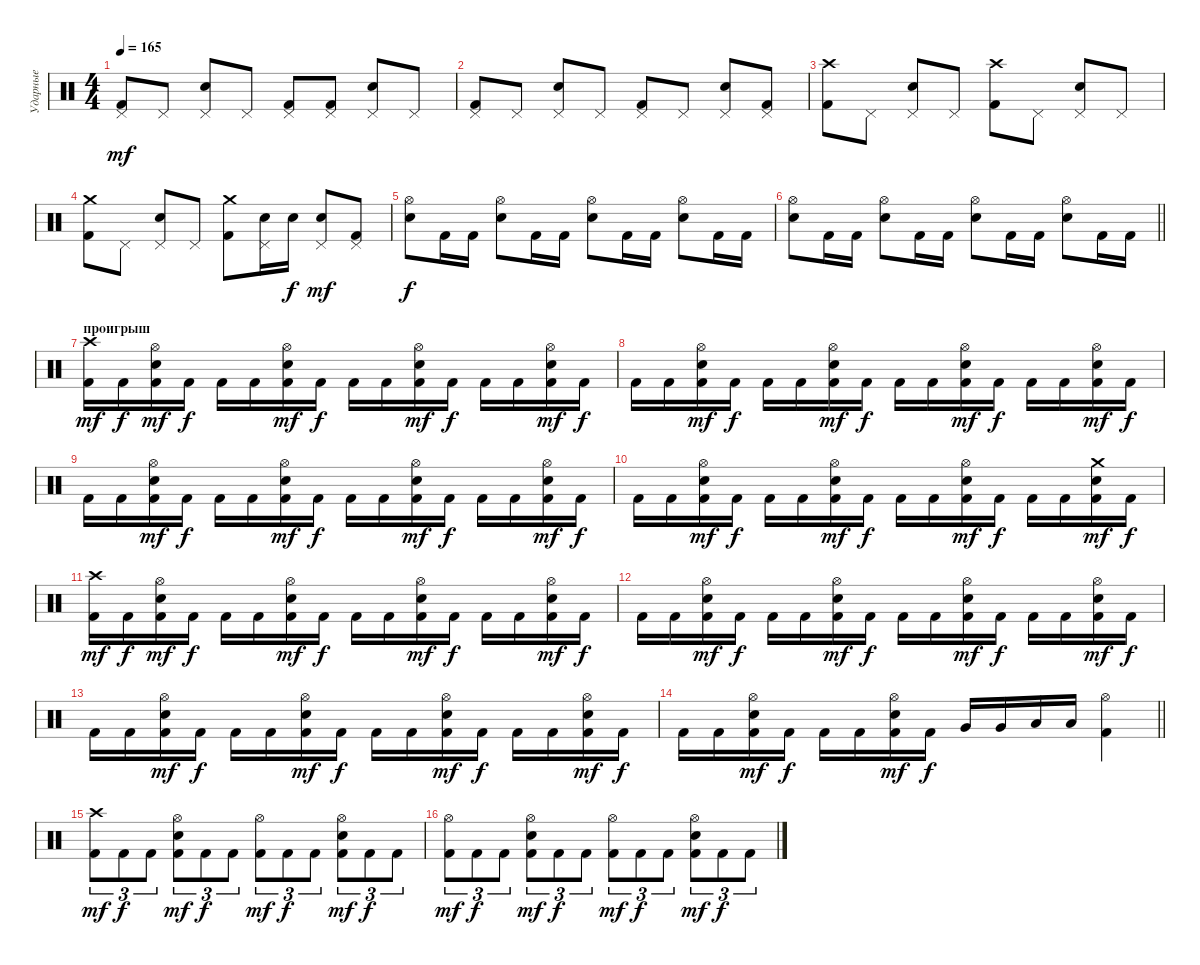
\track ("Ударные" "Ударные") {instrument percussion}
\staff {score}
\articulation defaults
\ts (4 4)
\tempo 165
\clef neutral
\ks c
("Kick (hit) 2" "Pedal Hi-Hat (hit)").8{dy mf} "Pedal Hi-Hat (hit)".8 ("Electric Snare (hit)" "Pedal Hi-Hat (hit)").8 "Pedal Hi-Hat (hit)".8 ("Kick (hit) 2" "Pedal Hi-Hat (hit)").8 ("Kick (hit) 2" "Pedal Hi-Hat (hit)").8 ("Electric Snare (hit)" "Pedal Hi-Hat (hit)").8 "Pedal Hi-Hat (hit)".8 |
("Kick (hit) 2" "Pedal Hi-Hat (hit)").8 "Pedal Hi-Hat (hit)".8 ("Electric Snare (hit)" "Pedal Hi-Hat (hit)").8 "Pedal Hi-Hat (hit)".8 ("Kick (hit) 2" "Pedal Hi-Hat (hit)").8 "Pedal Hi-Hat (hit)".8 ("Electric Snare (hit)" "Pedal Hi-Hat (hit)").8 ("Kick (hit) 2" "Pedal Hi-Hat (hit)").8 |
("Kick (hit) 2" "Crash high (hit)").8 "Pedal Hi-Hat (hit)".8 ("Electric Snare (hit)" "Pedal Hi-Hat (hit)").8 "Pedal Hi-Hat (hit)".8 ("Kick (hit) 2" "Crash high (hit)").8 "Pedal Hi-Hat (hit)".8 ("Electric Snare (hit)" "Pedal Hi-Hat (hit)").8 "Pedal Hi-Hat (hit)".8 |
("Kick (hit) 2" "Crash medium (hit)").8 "Pedal Hi-Hat (hit)".8 ("Electric Snare (hit)" "Pedal Hi-Hat (hit)").8 "Pedal Hi-Hat (hit)".8 ("Kick (hit) 2" "Crash medium (hit)").8 ("Electric Snare (hit)" "Pedal Hi-Hat (hit)").16 "Electric Snare (hit)".16{dy f} ("Electric Snare (hit)" "Pedal Hi-Hat (hit)").8{dy mf} ("Kick (hit) 2" "Pedal Hi-Hat (hit)").8 |
("Electric Snare (hit)" "Hi-Hat (open)").8{dy f} "Kick (hit) 2".16 "Kick (hit) 2".16 ("Electric Snare (hit)" "Hi-Hat (open)").8 "Kick (hit) 2".16 "Kick (hit) 2".16 ("Electric Snare (hit)" "Hi-Hat (open)").8 "Kick (hit) 2".16 "Kick (hit) 2".16 ("Electric Snare (hit)" "Hi-Hat (open)").8 "Kick (hit) 2".16 "Kick (hit) 2".16 |
\barLineRight lightlight
("Electric Snare (hit)" "Hi-Hat (open)").8 "Kick (hit) 2".16 "Kick (hit) 2".16 ("Electric Snare (hit)" "Hi-Hat (open)").8 "Kick (hit) 2".16 "Kick (hit) 2".16 ("Electric Snare (hit)" "Hi-Hat (open)").8 "Kick (hit) 2".16 "Kick (hit) 2".16 ("Electric Snare (hit)" "Hi-Hat (open)").8 "Kick (hit) 2".16 "Kick (hit) 2".16 |
\section ("" "проигрыш")
("Kick (hit) 2" "Crash high (hit)").16{dy mf} "Kick (hit) 2".16{dy f} ("Kick (hit) 2" "Electric Snare (hit)" "Hi-Hat (open)").16{dy mf} "Kick (hit) 2".16{dy f} "Kick (hit) 2".16 "Kick (hit) 2".16 ("Kick (hit) 2" "Electric Snare (hit)" "Hi-Hat (open)").16{dy mf} "Kick (hit) 2".16{dy f} "Kick (hit) 2".16 "Kick (hit) 2".16 ("Kick (hit) 2" "Electric Snare (hit)" "Hi-Hat (open)").16{dy mf} "Kick (hit) 2".16{dy f} "Kick (hit) 2".16 "Kick (hit) 2".16 ("Kick (hit) 2" "Electric Snare (hit)" "Hi-Hat (open)").16{dy mf} "Kick (hit) 2".16{dy f} |
"Kick (hit) 2".16 "Kick (hit) 2".16 ("Kick (hit) 2" "Electric Snare (hit)" "Hi-Hat (open)").16{dy mf} "Kick (hit) 2".16{dy f} "Kick (hit) 2".16 "Kick (hit) 2".16 ("Kick (hit) 2" "Electric Snare (hit)" "Hi-Hat (open)").16{dy mf} "Kick (hit) 2".16{dy f} "Kick (hit) 2".16 "Kick (hit) 2".16 ("Kick (hit) 2" "Electric Snare (hit)" "Hi-Hat (open)").16{dy mf} "Kick (hit) 2".16{dy f} "Kick (hit) 2".16 "Kick (hit) 2".16 ("Kick (hit) 2" "Electric Snare (hit)" "Hi-Hat (open)").16{dy mf} "Kick (hit) 2".16{dy f} |
"Kick (hit) 2".16 "Kick (hit) 2".16 ("Kick (hit) 2" "Electric Snare (hit)" "Hi-Hat (open)").16{dy mf} "Kick (hit) 2".16{dy f} "Kick (hit) 2".16 "Kick (hit) 2".16 ("Kick (hit) 2" "Electric Snare (hit)" "Hi-Hat (open)").16{dy mf} "Kick (hit) 2".16{dy f} "Kick (hit) 2".16 "Kick (hit) 2".16 ("Kick (hit) 2" "Electric Snare (hit)" "Hi-Hat (open)").16{dy mf} "Kick (hit) 2".16{dy f} "Kick (hit) 2".16 "Kick (hit) 2".16 ("Kick (hit) 2" "Electric Snare (hit)" "Hi-Hat (open)").16{dy mf} "Kick (hit) 2".16{dy f} |
"Kick (hit) 2".16 "Kick (hit) 2".16 ("Kick (hit) 2" "Electric Snare (hit)" "Hi-Hat (open)").16{dy mf} "Kick (hit) 2".16{dy f} "Kick (hit) 2".16 "Kick (hit) 2".16 ("Kick (hit) 2" "Electric Snare (hit)" "Hi-Hat (open)").16{dy mf} "Kick (hit) 2".16{dy f} "Kick (hit) 2".16 "Kick (hit) 2".16 ("Kick (hit) 2" "Electric Snare (hit)" "Hi-Hat (open)").16{dy mf} "Kick (hit) 2".16{dy f} "Kick (hit) 2".16 "Kick (hit) 2".16 ("Kick (hit) 2" "Electric Snare (hit)" "Crash medium (hit)").16{dy mf} "Kick (hit) 2".16{dy f} |
("Kick (hit) 2" "Crash high (hit)").16{dy mf} "Kick (hit) 2".16{dy f} ("Kick (hit) 2" "Electric Snare (hit)" "Hi-Hat (open)").16{dy mf} "Kick (hit) 2".16{dy f} "Kick (hit) 2".16 "Kick (hit) 2".16 ("Kick (hit) 2" "Electric Snare (hit)" "Hi-Hat (open)").16{dy mf} "Kick (hit) 2".16{dy f} "Kick (hit) 2".16 "Kick (hit) 2".16 ("Kick (hit) 2" "Electric Snare (hit)" "Hi-Hat (open)").16{dy mf} "Kick (hit) 2".16{dy f} "Kick (hit) 2".16 "Kick (hit) 2".16 ("Kick (hit) 2" "Electric Snare (hit)" "Hi-Hat (open)").16{dy mf} "Kick (hit) 2".16{dy f} |
"Kick (hit) 2".16 "Kick (hit) 2".16 ("Kick (hit) 2" "Electric Snare (hit)" "Hi-Hat (open)").16{dy mf} "Kick (hit) 2".16{dy f} "Kick (hit) 2".16 "Kick (hit) 2".16 ("Kick (hit) 2" "Electric Snare (hit)" "Hi-Hat (open)").16{dy mf} "Kick (hit) 2".16{dy f} "Kick (hit) 2".16 "Kick (hit) 2".16 ("Kick (hit) 2" "Electric Snare (hit)" "Hi-Hat (open)").16{dy mf} "Kick (hit) 2".16{dy f} "Kick (hit) 2".16 "Kick (hit) 2".16 ("Kick (hit) 2" "Electric Snare (hit)" "Hi-Hat (open)").16{dy mf} "Kick (hit) 2".16{dy f} |
"Kick (hit) 2".16 "Kick (hit) 2".16 ("Kick (hit) 2" "Electric Snare (hit)" "Hi-Hat (open)").16{dy mf} "Kick (hit) 2".16{dy f} "Kick (hit) 2".16 "Kick (hit) 2".16 ("Kick (hit) 2" "Electric Snare (hit)" "Hi-Hat (open)").16{dy mf} "Kick (hit) 2".16{dy f} "Kick (hit) 2".16 "Kick (hit) 2".16 ("Kick (hit) 2" "Electric Snare (hit)" "Hi-Hat (open)").16{dy mf} "Kick (hit) 2".16{dy f} "Kick (hit) 2".16 "Kick (hit) 2".16 ("Kick (hit) 2" "Electric Snare (hit)" "Hi-Hat (open)").16{dy mf} "Kick (hit) 2".16{dy f} |
\barLineRight lightlight "Kick (hit) 2".16 "Kick (hit) 2".16
("Kick (hit) 2" "Electric Snare (hit)" "Hi-Hat (open)").16{dy mf} "Kick (hit) 2".16{dy f} "Kick (hit) 2".16 "Kick (hit) 2".16 ("Kick (hit) 2" "Electric Snare (hit)" "Hi-Hat (open)").16{dy mf} "Kick (hit) 2".16{dy f} "Very Low Tom (hit)".16 "Very Low Tom (hit)".16 "Low Floor Tom (hit)".16 "Low Floor Tom (hit)".16 ("Kick (hit) 2" "Hi-Hat (open)").4 |
\section ("" "")
("Kick (hit) 2" "Crash high (hit)").8{tu (3 2) dy mf} "Kick (hit) 2".8{tu (3 2) dy f} "Kick (hit) 2".8{tu (3 2)} ("Kick (hit) 2" "Electric Snare (hit)" "Hi-Hat (open)").8{tu (3 2) dy mf} "Kick (hit) 2".8{tu (3 2) dy f} "Kick (hit) 2".8{tu (3 2)} ("Kick (hit) 2" "Hi-Hat (open)").8{tu (3 2) dy mf} "Kick (hit) 2".8{tu (3 2) dy f} "Kick (hit) 2".8{tu (3 2)} ("Kick (hit) 2" "Electric Snare (hit)" "Hi-Hat (open)").8{tu (3 2) dy mf} "Kick (hit) 2".8{tu (3 2) dy f} "Kick (hit) 2".8{tu (3 2)} |
("Kick (hit) 2" "Hi-Hat (open)").8{tu (3 2) dy mf} "Kick (hit) 2".8{tu (3 2) dy f} "Kick (hit) 2".8{tu (3 2)} ("Kick (hit) 2" "Electric Snare (hit)" "Hi-Hat (open)").8{tu (3 2) dy mf} "Kick (hit) 2".8{tu (3 2) dy f} "Kick (hit) 2".8{tu (3 2)} ("Kick (hit) 2" "Hi-Hat (open)").8{tu (3 2) dy mf} "Kick (hit) 2".8{tu (3 2) dy f} "Kick (hit) 2".8{tu (3 2)} ("Kick (hit) 2" "Electric Snare (hit)" "Hi-Hat (open)").8{tu (3 2) dy mf} "Kick (hit) 2".8{tu (3 2) dy f} "Kick (hit) 2".8{tu (3 2)}
